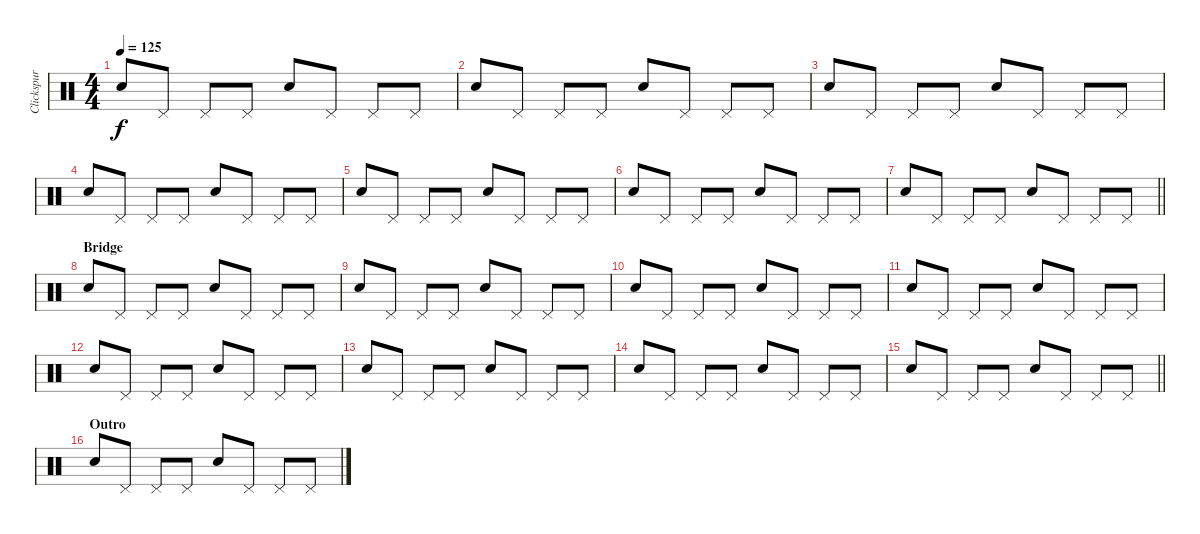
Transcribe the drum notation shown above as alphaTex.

\track ("Clickspur" "Clickspur") {instrument percussion}
\staff {score}
\articulation defaults
\ts (4 4)
\tempo 125
\clef neutral
\ks c "Electric Snare (hit)".8{dy f} "Pedal Hi-Hat (hit)".8 "Pedal Hi-Hat (hit)".8 "Pedal Hi-Hat (hit)".8 "Electric Snare (hit)".8 "Pedal Hi-Hat (hit)".8 "Pedal Hi-Hat (hit)".8 "Pedal Hi-Hat (hit)".8
|
"Electric Snare (hit)".8 "Pedal Hi-Hat (hit)".8 "Pedal Hi-Hat (hit)".8 "Pedal Hi-Hat (hit)".8 "Electric Snare (hit)".8 "Pedal Hi-Hat (hit)".8 "Pedal Hi-Hat (hit)".8 "Pedal Hi-Hat (hit)".8 |
"Electric Snare (hit)".8 "Pedal Hi-Hat (hit)".8 "Pedal Hi-Hat (hit)".8 "Pedal Hi-Hat (hit)".8 "Electric Snare (hit)".8 "Pedal Hi-Hat (hit)".8 "Pedal Hi-Hat (hit)".8 "Pedal Hi-Hat (hit)".8 |
"Electric Snare (hit)".8 "Pedal Hi-Hat (hit)".8 "Pedal Hi-Hat (hit)".8 "Pedal Hi-Hat (hit)".8 "Electric Snare (hit)".8 "Pedal Hi-Hat (hit)".8 "Pedal Hi-Hat (hit)".8 "Pedal Hi-Hat (hit)".8 |
"Electric Snare (hit)".8 "Pedal Hi-Hat (hit)".8 "Pedal Hi-Hat (hit)".8 "Pedal Hi-Hat (hit)".8 "Electric Snare (hit)".8 "Pedal Hi-Hat (hit)".8 "Pedal Hi-Hat (hit)".8 "Pedal Hi-Hat (hit)".8 |
"Electric Snare (hit)".8 "Pedal Hi-Hat (hit)".8 "Pedal Hi-Hat (hit)".8 "Pedal Hi-Hat (hit)".8 "Electric Snare (hit)".8 "Pedal Hi-Hat (hit)".8 "Pedal Hi-Hat (hit)".8 "Pedal Hi-Hat (hit)".8 |
\barLineRight lightlight "Electric Snare (hit)".8 "Pedal Hi-Hat (hit)".8 "Pedal Hi-Hat (hit)".8 "Pedal Hi-Hat (hit)".8 "Electric Snare (hit)".8 "Pedal Hi-Hat (hit)".8 "Pedal Hi-Hat (hit)".8 "Pedal Hi-Hat (hit)".8
|
\section ("" "Bridge")
"Electric Snare (hit)".8 "Pedal Hi-Hat (hit)".8 "Pedal Hi-Hat (hit)".8 "Pedal Hi-Hat (hit)".8 "Electric Snare (hit)".8 "Pedal Hi-Hat (hit)".8 "Pedal Hi-Hat (hit)".8 "Pedal Hi-Hat (hit)".8 |
"Electric Snare (hit)".8 "Pedal Hi-Hat (hit)".8 "Pedal Hi-Hat (hit)".8 "Pedal Hi-Hat (hit)".8 "Electric Snare (hit)".8 "Pedal Hi-Hat (hit)".8 "Pedal Hi-Hat (hit)".8 "Pedal Hi-Hat (hit)".8 |
"Electric Snare (hit)".8 "Pedal Hi-Hat (hit)".8 "Pedal Hi-Hat (hit)".8 "Pedal Hi-Hat (hit)".8 "Electric Snare (hit)".8 "Pedal Hi-Hat (hit)".8 "Pedal Hi-Hat (hit)".8 "Pedal Hi-Hat (hit)".8 |
"Electric Snare (hit)".8 "Pedal Hi-Hat (hit)".8 "Pedal Hi-Hat (hit)".8 "Pedal Hi-Hat (hit)".8 "Electric Snare (hit)".8 "Pedal Hi-Hat (hit)".8 "Pedal Hi-Hat (hit)".8 "Pedal Hi-Hat (hit)".8 |
"Electric Snare (hit)".8 "Pedal Hi-Hat (hit)".8 "Pedal Hi-Hat (hit)".8 "Pedal Hi-Hat (hit)".8 "Electric Snare (hit)".8 "Pedal Hi-Hat (hit)".8 "Pedal Hi-Hat (hit)".8 "Pedal Hi-Hat (hit)".8 |
"Electric Snare (hit)".8 "Pedal Hi-Hat (hit)".8 "Pedal Hi-Hat (hit)".8 "Pedal Hi-Hat (hit)".8 "Electric Snare (hit)".8 "Pedal Hi-Hat (hit)".8 "Pedal Hi-Hat (hit)".8 "Pedal Hi-Hat (hit)".8 |
"Electric Snare (hit)".8 "Pedal Hi-Hat (hit)".8 "Pedal Hi-Hat (hit)".8 "Pedal Hi-Hat (hit)".8 "Electric Snare (hit)".8 "Pedal Hi-Hat (hit)".8 "Pedal Hi-Hat (hit)".8 "Pedal Hi-Hat (hit)".8 |
\barLineRight lightlight "Electric Snare (hit)".8 "Pedal Hi-Hat (hit)".8 "Pedal Hi-Hat (hit)".8 "Pedal Hi-Hat (hit)".8 "Electric Snare (hit)".8 "Pedal Hi-Hat (hit)".8 "Pedal Hi-Hat (hit)".8 "Pedal Hi-Hat (hit)".8
|
\section ("" "Outro")
"Electric Snare (hit)".8 "Pedal Hi-Hat (hit)".8 "Pedal Hi-Hat (hit)".8 "Pedal Hi-Hat (hit)".8 "Electric Snare (hit)".8 "Pedal Hi-Hat (hit)".8 "Pedal Hi-Hat (hit)".8 "Pedal Hi-Hat (hit)".8
